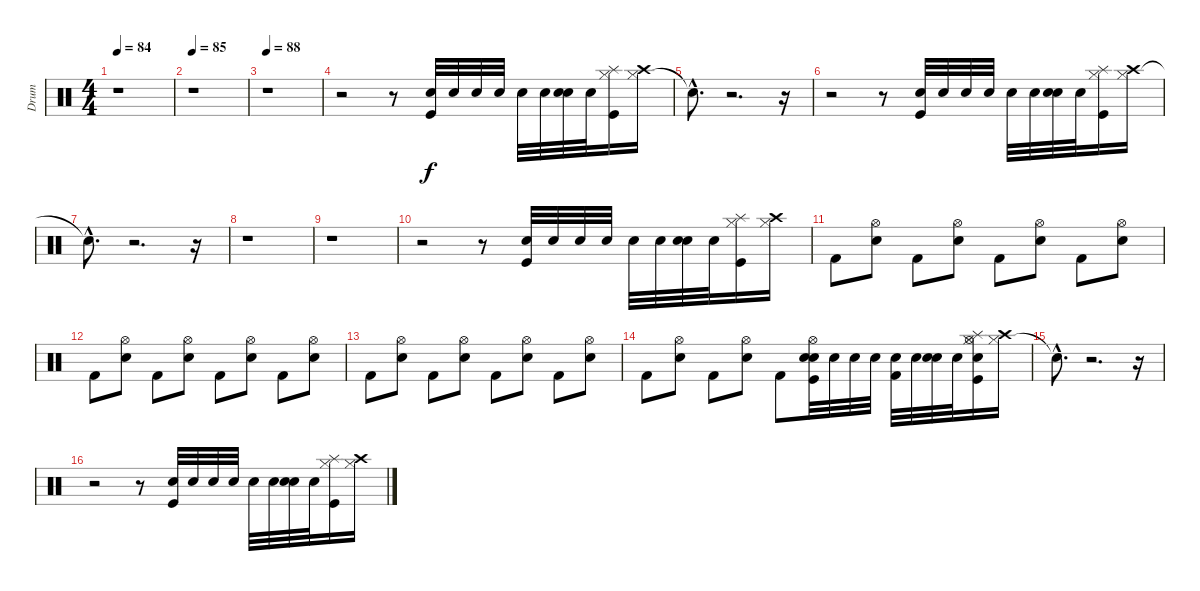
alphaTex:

\track ("Drum" "Drum") {instrument percussion}
\staff {score}
\articulation defaults
\ts (4 4)
\tempo 84
\clef neutral
\ks c
r.1{dy f} |
\tempo 85
r.1 |
\tempo 88
r.1 |
r.2 r.8 ("Kick (hit)" "Snare (hit) 2").32 "Snare (hit) 2".32 "Snare (hit) 2".32 "Snare (hit) 2".32 "Snare (hit) 2".32 "Snare (hit) 2".32 ("Snare (hit) 2" "Electric Snare (hit)").32 "Snare (hit) 2".32 ("Hi-Hat (closed)" "Kick (hit)" "Splash (hit)").16 ("Hi-Hat (closed)" "Crash high (hit)").16 |
"Snare (hit)"{hac t}.8{d} r.2{d} r.16 |
r.2 r.8 ("Kick (hit)" "Snare (hit) 2").32 "Snare (hit) 2".32 "Snare (hit) 2".32 "Snare (hit) 2".32 "Snare (hit) 2".32 "Snare (hit) 2".32 ("Electric Snare (hit)" "Snare (hit) 2").32 "Snare (hit) 2".32 ("Splash (hit)" "Kick (hit)" "Hi-Hat (closed)").16 ("Hi-Hat (closed)" "Crash high (hit)").16 |
"Snare (hit)"{hac t}.8{d} r.2{d} r.16 |
r.1 |
r.1 |
r.2 r.8 ("Snare (hit) 2" "Kick (hit)").32 "Snare (hit) 2".32 "Snare (hit) 2".32 "Snare (hit) 2".32 "Snare (hit) 2".32 "Snare (hit) 2".32 ("Snare (hit) 2" "Electric Snare (hit)").32 "Snare (hit) 2".32 ("Hi-Hat (closed)" "Kick (hit)" "Splash (hit)").16 ("Hi-Hat (closed)" "Crash high (hit)").16 |
"Kick (hit) 2".8 ("Hi-Hat (open)" "Snare (hit) 2").8 "Kick (hit) 2".8 ("Hi-Hat (open)" "Snare (hit) 2").8 "Kick (hit) 2".8 ("Hi-Hat (open)" "Snare (hit) 2").8 "Kick (hit) 2".8 ("Snare (hit) 2" "Hi-Hat (open)").8 |
"Kick (hit) 2".8 ("Snare (hit) 2" "Hi-Hat (open)").8 "Kick (hit) 2".8 ("Snare (hit) 2" "Hi-Hat (open)").8 "Kick (hit) 2".8 ("Snare (hit) 2" "Hi-Hat (open)").8 "Kick (hit) 2".8 ("Hi-Hat (open)" "Snare (hit) 2").8 |
"Kick (hit) 2".8 ("Hi-Hat (open)" "Snare (hit) 2").8 "Kick (hit) 2".8 ("Hi-Hat (open)" "Snare (hit) 2").8 "Kick (hit) 2".8 ("Snare (hit) 2" "Hi-Hat (open)").8 "Kick (hit) 2".8 ("Hi-Hat (open)" "Snare (hit) 2").8 |
"Kick (hit) 2".8 ("Hi-Hat (open)" "Snare (hit) 2").8 "Kick (hit) 2".8 ("Hi-Hat (open)" "Snare (hit) 2").8 "Kick (hit) 2".8 ("Snare (hit) 2" "Snare (hit) 2" "Kick (hit)" "Hi-Hat (open)").32 "Snare (hit) 2".32 "Snare (hit) 2".32 "Snare (hit) 2".32 ("Kick (hit) 2" "Snare (hit) 2").32 "Snare (hit) 2".32 ("Snare (hit) 2" "Electric Snare (hit)").32 "Snare (hit) 2".32 ("Splash (hit)" "Hi-Hat (closed)" "Snare (hit) 2" "Hi-Hat (open)" "Kick (hit)").16 ("Hi-Hat (closed)" "Crash high (hit)").16 |
"Snare (hit)"{hac t}.8{d} r.2{d} r.16 |
r.2 r.8 ("Snare (hit) 2" "Kick (hit)").32 "Snare (hit) 2".32 "Snare (hit) 2".32 "Snare (hit) 2".32 "Snare (hit) 2".32 "Snare (hit) 2".32 ("Snare (hit) 2" "Electric Snare (hit)").32 "Snare (hit) 2".32 ("Splash (hit)" "Kick (hit)" "Hi-Hat (closed)").16 ("Hi-Hat (closed)" "Crash high (hit)").16
